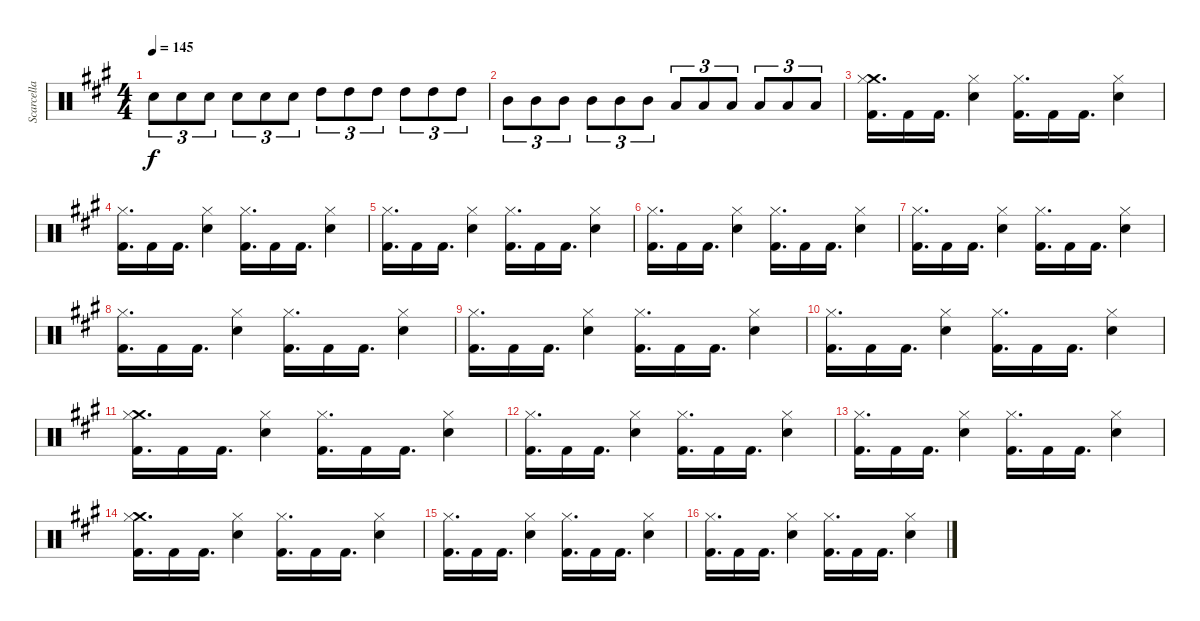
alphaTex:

\track ("Scarcella" "Scarcella") {instrument percussion}
\staff {score}
\articulation defaults
\ts (4 4)
\tempo 145
\clef neutral
\ks f#minor "Snare (hit) 2".8{tu (3 2) dy f} "Snare (hit) 2".8{tu (3 2)} "Snare (hit) 2".8{tu (3 2)} "Snare (hit) 2".8{tu (3 2)} "Snare (hit) 2".8{tu (3 2)} "Snare (hit) 2".8{tu (3 2)} "High Tom (hit)".8{tu (3 2)} "High Tom (hit)".8{tu (3 2)} "High Tom (hit)".8{tu (3 2)} "High Tom (hit)".8{tu (3 2)} "High Tom (hit)".8{tu (3 2)} "High Tom (hit)".8{tu (3 2)}
|
"Mid Tom (hit)".8{tu (3 2)} "Mid Tom (hit)".8{tu (3 2)} "Mid Tom (hit)".8{tu (3 2)} "Mid Tom (hit)".8{tu (3 2)} "Mid Tom (hit)".8{tu (3 2)} "Mid Tom (hit)".8{tu (3 2)} "Low Tom (hit)".8{tu (3 2)} "Low Tom (hit)".8{tu (3 2)} "Low Tom (hit)".8{tu (3 2)} "Low Tom (hit)".8{tu (3 2)} "Low Tom (hit)".8{tu (3 2)} "Low Tom (hit)".8{tu (3 2)} |
("Crash medium (hit)" "Hi-Hat (closed)" "Kick (hit) 2").16{d} "Kick (hit) 2".16 "Kick (hit) 2".16{d} ("Hi-Hat (closed)" "Snare (hit) 2").4 ("Hi-Hat (closed)" "Kick (hit) 2").16{d} "Kick (hit) 2".16 "Kick (hit) 2".16{d} ("Hi-Hat (closed)" "Snare (hit) 2").4 |
("Hi-Hat (closed)" "Kick (hit) 2").16{d} "Kick (hit) 2".16 "Kick (hit) 2".16{d} ("Hi-Hat (closed)" "Snare (hit) 2").4 ("Hi-Hat (closed)" "Kick (hit) 2").16{d} "Kick (hit) 2".16 "Kick (hit) 2".16{d} ("Hi-Hat (closed)" "Snare (hit) 2").4 |
("Hi-Hat (closed)" "Kick (hit) 2").16{d} "Kick (hit) 2".16 "Kick (hit) 2".16{d} ("Hi-Hat (closed)" "Snare (hit) 2").4 ("Hi-Hat (closed)" "Kick (hit) 2").16{d} "Kick (hit) 2".16 "Kick (hit) 2".16{d} ("Hi-Hat (closed)" "Snare (hit) 2").4 |
("Hi-Hat (closed)" "Kick (hit) 2").16{d} "Kick (hit) 2".16 "Kick (hit) 2".16{d} ("Hi-Hat (closed)" "Snare (hit) 2").4 ("Hi-Hat (closed)" "Kick (hit) 2").16{d} "Kick (hit) 2".16 "Kick (hit) 2".16{d} ("Hi-Hat (closed)" "Snare (hit) 2").4 |
("Hi-Hat (closed)" "Kick (hit) 2").16{d} "Kick (hit) 2".16 "Kick (hit) 2".16{d} ("Hi-Hat (closed)" "Snare (hit) 2").4 ("Hi-Hat (closed)" "Kick (hit) 2").16{d} "Kick (hit) 2".16 "Kick (hit) 2".16{d} ("Hi-Hat (closed)" "Snare (hit) 2").4 |
("Hi-Hat (closed)" "Kick (hit) 2").16{d} "Kick (hit) 2".16 "Kick (hit) 2".16{d} ("Hi-Hat (closed)" "Snare (hit) 2").4 ("Hi-Hat (closed)" "Kick (hit) 2").16{d} "Kick (hit) 2".16 "Kick (hit) 2".16{d} ("Hi-Hat (closed)" "Snare (hit) 2").4 |
("Hi-Hat (closed)" "Kick (hit) 2").16{d} "Kick (hit) 2".16 "Kick (hit) 2".16{d} ("Hi-Hat (closed)" "Snare (hit) 2").4 ("Hi-Hat (closed)" "Kick (hit) 2").16{d} "Kick (hit) 2".16 "Kick (hit) 2".16{d} ("Hi-Hat (closed)" "Snare (hit) 2").4 |
("Hi-Hat (closed)" "Kick (hit) 2").16{d} "Kick (hit) 2".16 "Kick (hit) 2".16{d} ("Hi-Hat (closed)" "Snare (hit) 2").4 ("Hi-Hat (closed)" "Kick (hit) 2").16{d} "Kick (hit) 2".16 "Kick (hit) 2".16{d} ("Hi-Hat (closed)" "Snare (hit) 2").4 |
("Crash medium (hit)" "Hi-Hat (closed)" "Kick (hit) 2").16{d} "Kick (hit) 2".16 "Kick (hit) 2".16{d} ("Hi-Hat (closed)" "Snare (hit) 2").4 ("Hi-Hat (closed)" "Kick (hit) 2").16{d} "Kick (hit) 2".16 "Kick (hit) 2".16{d} ("Hi-Hat (closed)" "Snare (hit) 2").4 |
("Hi-Hat (closed)" "Kick (hit) 2").16{d} "Kick (hit) 2".16 "Kick (hit) 2".16{d} ("Hi-Hat (closed)" "Snare (hit) 2").4 ("Hi-Hat (closed)" "Kick (hit) 2").16{d} "Kick (hit) 2".16 "Kick (hit) 2".16{d} ("Hi-Hat (closed)" "Snare (hit) 2").4 |
("Hi-Hat (closed)" "Kick (hit) 2").16{d} "Kick (hit) 2".16 "Kick (hit) 2".16{d} ("Hi-Hat (closed)" "Snare (hit) 2").4 ("Hi-Hat (closed)" "Kick (hit) 2").16{d} "Kick (hit) 2".16 "Kick (hit) 2".16{d} ("Hi-Hat (closed)" "Snare (hit) 2").4 |
("Crash medium (hit)" "Hi-Hat (closed)" "Kick (hit) 2").16{d} "Kick (hit) 2".16 "Kick (hit) 2".16{d} ("Hi-Hat (closed)" "Snare (hit) 2").4 ("Hi-Hat (closed)" "Kick (hit) 2").16{d} "Kick (hit) 2".16 "Kick (hit) 2".16{d} ("Hi-Hat (closed)" "Snare (hit) 2").4 |
("Hi-Hat (closed)" "Kick (hit) 2").16{d} "Kick (hit) 2".16 "Kick (hit) 2".16{d} ("Hi-Hat (closed)" "Snare (hit) 2").4 ("Hi-Hat (closed)" "Kick (hit) 2").16{d} "Kick (hit) 2".16 "Kick (hit) 2".16{d} ("Hi-Hat (closed)" "Snare (hit) 2").4 |
("Hi-Hat (closed)" "Kick (hit) 2").16{d} "Kick (hit) 2".16 "Kick (hit) 2".16{d} ("Hi-Hat (closed)" "Snare (hit) 2").4 ("Hi-Hat (closed)" "Kick (hit) 2").16{d} "Kick (hit) 2".16 "Kick (hit) 2".16{d} ("Hi-Hat (closed)" "Snare (hit) 2").4
